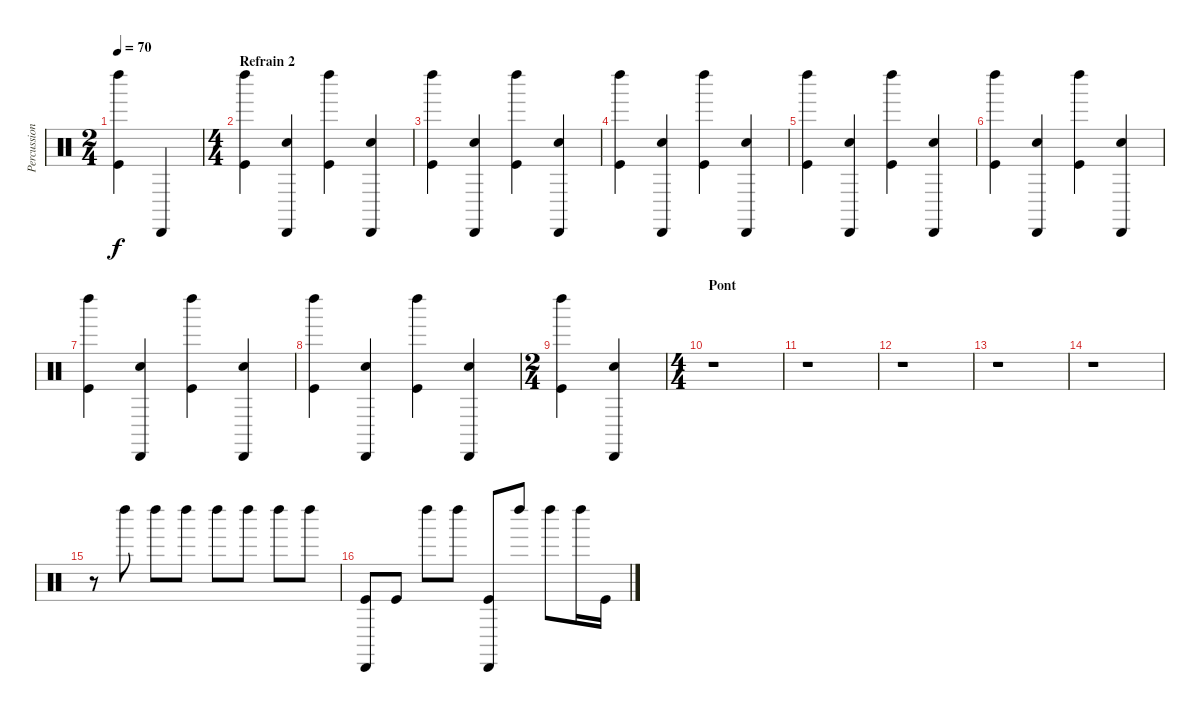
\track ("Percussions" "Percussion") {instrument percussion}
\staff {score}
\articulation defaults
\ts (2 4)
\tempo 70
\clef neutral
\ks c
("Left Maraca (hit)" "Kick (hit)").4{dy f} "Cabasa (hit)".4 |
\ts (4 4)
\section ("" "Refrain 2")
("Left Maraca (hit)" "Kick (hit)").4 ("Cabasa (hit)" "Snare (hit) 2").4 ("Left Maraca (hit)" "Kick (hit)").4 ("Snare (hit) 2" "Cabasa (hit)").4 |
("Left Maraca (hit)" "Kick (hit)").4 ("Cabasa (hit)" "Snare (hit) 2").4 ("Left Maraca (hit)" "Kick (hit)").4 ("Snare (hit) 2" "Cabasa (hit)").4 |
("Left Maraca (hit)" "Kick (hit)").4 ("Cabasa (hit)" "Snare (hit) 2").4 ("Left Maraca (hit)" "Kick (hit)").4 ("Snare (hit) 2" "Cabasa (hit)").4 |
("Left Maraca (hit)" "Kick (hit)").4 ("Cabasa (hit)" "Snare (hit) 2").4 ("Left Maraca (hit)" "Kick (hit)").4 ("Snare (hit) 2" "Cabasa (hit)").4 |
("Left Maraca (hit)" "Kick (hit)").4 ("Cabasa (hit)" "Snare (hit) 2").4 ("Left Maraca (hit)" "Kick (hit)").4 ("Snare (hit) 2" "Cabasa (hit)").4 |
("Left Maraca (hit)" "Kick (hit)").4 ("Cabasa (hit)" "Snare (hit) 2").4 ("Left Maraca (hit)" "Kick (hit)").4 ("Snare (hit) 2" "Cabasa (hit)").4 |
("Left Maraca (hit)" "Kick (hit)").4 ("Cabasa (hit)" "Snare (hit) 2").4 ("Left Maraca (hit)" "Kick (hit)").4 ("Snare (hit) 2" "Cabasa (hit)").4 |
\ts (2 4)
("Left Maraca (hit)" "Kick (hit)").4 ("Cabasa (hit)" "Snare (hit) 2").4 |
\ts (4 4)
\section ("" "Pont")
r.1 |
r.1 |
r.1 |
r.1 |
r.1 |
r.8 "Left Maraca (hit)".8 "Left Maraca (hit)".8 "Left Maraca (hit)".8 "Left Maraca (hit)".8 "Left Maraca (hit)".8 "Left Maraca (hit)".8 "Left Maraca (hit)".8 |
("Cabasa (hit)" "Kick (hit)").8 "Kick (hit)".8 "Left Maraca (hit)".8 "Left Maraca (hit)".8 ("Cabasa (hit)" "Kick (hit)").8 "Left Maraca (hit)".8 "Left Maraca (hit)".8 "Left Maraca (hit)".16 "Kick (hit)".16
